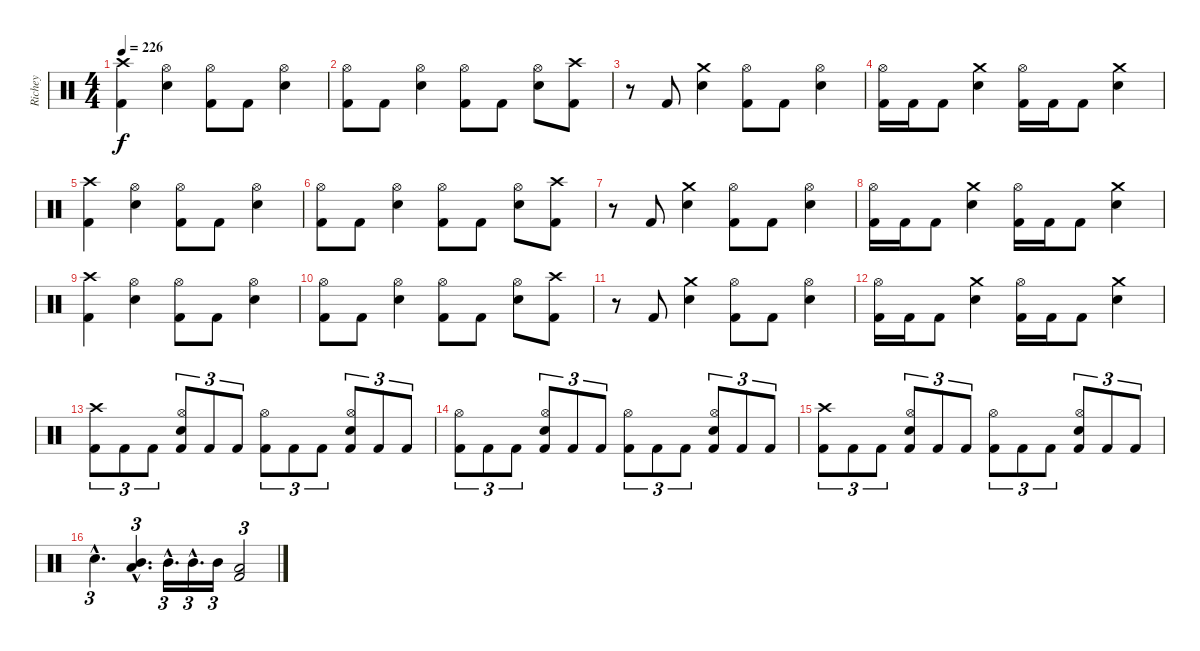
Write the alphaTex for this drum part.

\track ("Richey" "Richey") {instrument percussion}
\staff {score}
\articulation defaults
\ts (4 4)
\tempo 226
\clef neutral
\ks c
("Crash high (hit)" "Kick (hit) 2").4{dy f} ("Hi-Hat (open)" "Snare (hit) 2").4 ("Hi-Hat (open)" "Kick (hit) 2").8 "Kick (hit) 2".8 ("Hi-Hat (open)" "Snare (hit) 2").4 |
("Hi-Hat (open)" "Kick (hit) 2").8 "Kick (hit) 2".8 ("Hi-Hat (open)" "Snare (hit) 2").4 ("Hi-Hat (open)" "Kick (hit) 2").8 "Kick (hit) 2".8 ("Hi-Hat (open)" "Snare (hit) 2").8 ("Crash high (hit)" "Kick (hit) 2").8 |
r.8 "Kick (hit) 2".8 ("Crash medium (hit)" "Snare (hit) 2").4 ("Hi-Hat (open)" "Kick (hit) 2").8 "Kick (hit) 2".8 ("Hi-Hat (open)" "Snare (hit) 2").4 |
("Hi-Hat (open)" "Kick (hit) 2").16 "Kick (hit) 2".16 "Kick (hit) 2".8 ("Crash medium (hit)" "Snare (hit) 2").4 ("Hi-Hat (open)" "Kick (hit) 2").16 "Kick (hit) 2".16 "Kick (hit) 2".8 ("Crash medium (hit)" "Snare (hit) 2").4 |
("Crash high (hit)" "Kick (hit) 2").4 ("Hi-Hat (open)" "Snare (hit) 2").4 ("Hi-Hat (open)" "Kick (hit) 2").8 "Kick (hit) 2".8 ("Hi-Hat (open)" "Snare (hit) 2").4 |
("Hi-Hat (open)" "Kick (hit) 2").8 "Kick (hit) 2".8 ("Hi-Hat (open)" "Snare (hit) 2").4 ("Hi-Hat (open)" "Kick (hit) 2").8 "Kick (hit) 2".8 ("Hi-Hat (open)" "Snare (hit) 2").8 ("Crash high (hit)" "Kick (hit) 2").8 |
r.8 "Kick (hit) 2".8 ("Crash medium (hit)" "Snare (hit) 2").4 ("Hi-Hat (open)" "Kick (hit) 2").8 "Kick (hit) 2".8 ("Hi-Hat (open)" "Snare (hit) 2").4 |
("Hi-Hat (open)" "Kick (hit) 2").16 "Kick (hit) 2".16 "Kick (hit) 2".8 ("Crash medium (hit)" "Snare (hit) 2").4 ("Hi-Hat (open)" "Kick (hit) 2").16 "Kick (hit) 2".16 "Kick (hit) 2".8 ("Crash medium (hit)" "Snare (hit) 2").4 |
("Crash high (hit)" "Kick (hit) 2").4 ("Hi-Hat (open)" "Snare (hit) 2").4 ("Hi-Hat (open)" "Kick (hit) 2").8 "Kick (hit) 2".8 ("Hi-Hat (open)" "Snare (hit) 2").4 |
("Hi-Hat (open)" "Kick (hit) 2").8 "Kick (hit) 2".8 ("Hi-Hat (open)" "Snare (hit) 2").4 ("Hi-Hat (open)" "Kick (hit) 2").8 "Kick (hit) 2".8 ("Hi-Hat (open)" "Snare (hit) 2").8 ("Crash high (hit)" "Kick (hit) 2").8 |
r.8 "Kick (hit) 2".8 ("Crash medium (hit)" "Snare (hit) 2").4 ("Hi-Hat (open)" "Kick (hit) 2").8 "Kick (hit) 2".8 ("Hi-Hat (open)" "Snare (hit) 2").4 |
("Hi-Hat (open)" "Kick (hit) 2").16 "Kick (hit) 2".16 "Kick (hit) 2".8 ("Crash medium (hit)" "Snare (hit) 2").4 ("Hi-Hat (open)" "Kick (hit) 2").16 "Kick (hit) 2".16 "Kick (hit) 2".8 ("Crash medium (hit)" "Snare (hit) 2").4 |
("Crash high (hit)" "Kick (hit) 2").8{tu (3 2)} "Kick (hit) 2".8{tu (3 2)} "Kick (hit) 2".8{tu (3 2)} ("Hi-Hat (open)" "Snare (hit) 2" "Kick (hit) 2").8{tu (3 2)} "Kick (hit) 2".8{tu (3 2)} "Kick (hit) 2".8{tu (3 2)} ("Hi-Hat (open)" "Kick (hit) 2").8{tu (3 2)} "Kick (hit) 2".8{tu (3 2)} "Kick (hit) 2".8{tu (3 2)} ("Hi-Hat (open)" "Snare (hit) 2" "Kick (hit) 2").8{tu (3 2)} "Kick (hit) 2".8{tu (3 2)} "Kick (hit) 2".8{tu (3 2)} |
("Hi-Hat (open)" "Kick (hit) 2").8{tu (3 2)} "Kick (hit) 2".8{tu (3 2)} "Kick (hit) 2".8{tu (3 2)} ("Hi-Hat (open)" "Snare (hit) 2" "Kick (hit) 2").8{tu (3 2)} "Kick (hit) 2".8{tu (3 2)} "Kick (hit) 2".8{tu (3 2)} ("Hi-Hat (open)" "Kick (hit) 2").8{tu (3 2)} "Kick (hit) 2".8{tu (3 2)} "Kick (hit) 2".8{tu (3 2)} ("Hi-Hat (open)" "Snare (hit) 2" "Kick (hit) 2").8{tu (3 2)} "Kick (hit) 2".8{tu (3 2)} "Kick (hit) 2".8{tu (3 2)} |
("Crash high (hit)" "Kick (hit) 2").8{tu (3 2)} "Kick (hit) 2".8{tu (3 2)} "Kick (hit) 2".8{tu (3 2)} ("Hi-Hat (open)" "Snare (hit) 2" "Kick (hit) 2").8{tu (3 2)} "Kick (hit) 2".8{tu (3 2)} "Kick (hit) 2".8{tu (3 2)} ("Hi-Hat (open)" "Kick (hit) 2").8{tu (3 2)} "Kick (hit) 2".8{tu (3 2)} "Kick (hit) 2".8{tu (3 2)} ("Hi-Hat (open)" "Snare (hit) 2" "Kick (hit) 2").8{tu (3 2)} "Kick (hit) 2".8{tu (3 2)} "Kick (hit) 2".8{tu (3 2)} |
"Snare (hit) 2"{hac}.4{d tu (3 2)} ("Mid Tom (hit)"{hac} "Low Tom (hit)"{hac}).4{d tu (3 2)} "Mid Tom (hit)"{hac}.16{d tu (3 2)} "Mid Tom (hit)"{hac}.16{d tu (3 2)} "Mid Tom (hit)".16{tu (3 2)} ("Low Tom (hit)" "Kick (hit) 2").2{tu (3 2)}
